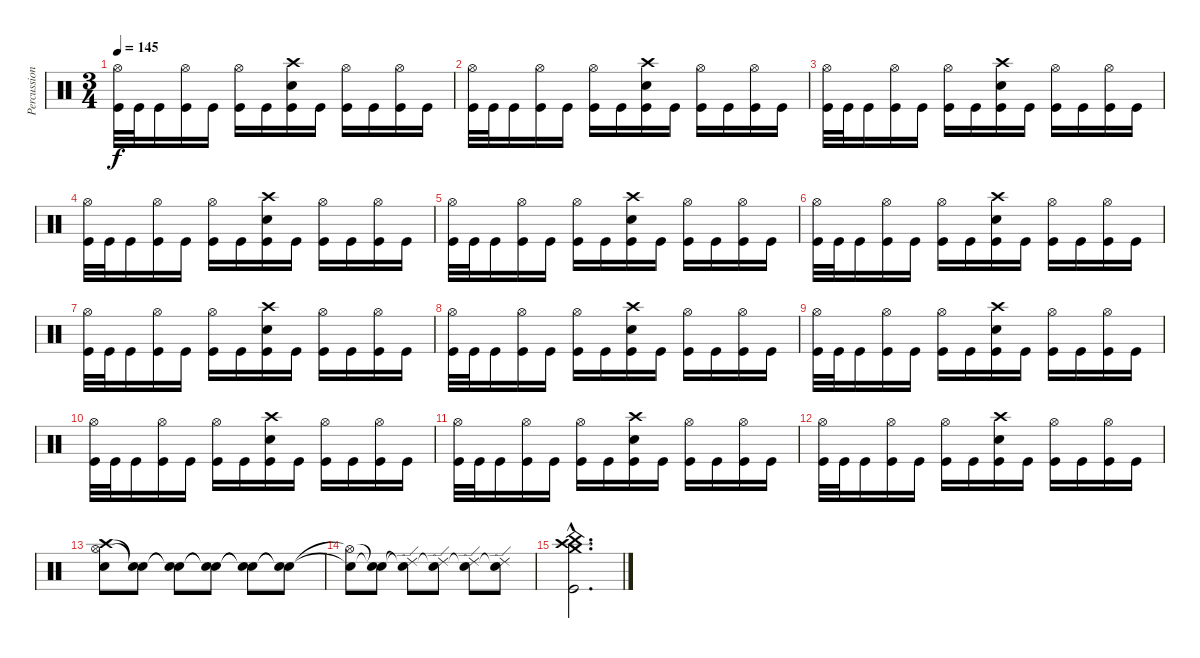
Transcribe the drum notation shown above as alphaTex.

\track ("Percussion" "Percussion") {instrument percussion}
\staff {score}
\articulation defaults
\ts (3 4)
\tempo 145
\clef neutral
\ks c
("Hi-Hat (open)" "Kick (hit)").32{dy f} "Kick (hit)".32 "Kick (hit)".16 ("Hi-Hat (open)" "Kick (hit)").16 "Kick (hit)".16 ("Hi-Hat (open)" "Kick (hit)").16 "Kick (hit)".16 ("Crash high (hit)" "Snare (hit) 2" "Kick (hit)").16 "Kick (hit)".16 ("Hi-Hat (open)" "Kick (hit)").16 "Kick (hit)".16 ("Hi-Hat (open)" "Kick (hit)").16 "Kick (hit)".16 |
("Hi-Hat (open)" "Kick (hit)").32 "Kick (hit)".32 "Kick (hit)".16 ("Hi-Hat (open)" "Kick (hit)").16 "Kick (hit)".16 ("Hi-Hat (open)" "Kick (hit)").16 "Kick (hit)".16 ("Crash high (hit)" "Snare (hit) 2" "Kick (hit)").16 "Kick (hit)".16 ("Hi-Hat (open)" "Kick (hit)").16 "Kick (hit)".16 ("Hi-Hat (open)" "Kick (hit)").16 "Kick (hit)".16 |
("Hi-Hat (open)" "Kick (hit)").32 "Kick (hit)".32 "Kick (hit)".16 ("Hi-Hat (open)" "Kick (hit)").16 "Kick (hit)".16 ("Hi-Hat (open)" "Kick (hit)").16 "Kick (hit)".16 ("Crash high (hit)" "Snare (hit) 2" "Kick (hit)").16 "Kick (hit)".16 ("Hi-Hat (open)" "Kick (hit)").16 "Kick (hit)".16 ("Hi-Hat (open)" "Kick (hit)").16 "Kick (hit)".16 |
("Hi-Hat (open)" "Kick (hit)").32 "Kick (hit)".32 "Kick (hit)".16 ("Hi-Hat (open)" "Kick (hit)").16 "Kick (hit)".16 ("Hi-Hat (open)" "Kick (hit)").16 "Kick (hit)".16 ("Crash high (hit)" "Snare (hit) 2" "Kick (hit)").16 "Kick (hit)".16 ("Hi-Hat (open)" "Kick (hit)").16 "Kick (hit)".16 ("Hi-Hat (open)" "Kick (hit)").16 "Kick (hit)".16 |
("Hi-Hat (open)" "Kick (hit)").32 "Kick (hit)".32 "Kick (hit)".16 ("Hi-Hat (open)" "Kick (hit)").16 "Kick (hit)".16 ("Hi-Hat (open)" "Kick (hit)").16 "Kick (hit)".16 ("Crash high (hit)" "Snare (hit) 2" "Kick (hit)").16 "Kick (hit)".16 ("Hi-Hat (open)" "Kick (hit)").16 "Kick (hit)".16 ("Hi-Hat (open)" "Kick (hit)").16 "Kick (hit)".16 |
("Hi-Hat (open)" "Kick (hit)").32 "Kick (hit)".32 "Kick (hit)".16 ("Hi-Hat (open)" "Kick (hit)").16 "Kick (hit)".16 ("Hi-Hat (open)" "Kick (hit)").16 "Kick (hit)".16 ("Crash high (hit)" "Snare (hit) 2" "Kick (hit)").16 "Kick (hit)".16 ("Hi-Hat (open)" "Kick (hit)").16 "Kick (hit)".16 ("Hi-Hat (open)" "Kick (hit)").16 "Kick (hit)".16 |
("Hi-Hat (open)" "Kick (hit)").32 "Kick (hit)".32 "Kick (hit)".16 ("Hi-Hat (open)" "Kick (hit)").16 "Kick (hit)".16 ("Hi-Hat (open)" "Kick (hit)").16 "Kick (hit)".16 ("Crash high (hit)" "Snare (hit) 2" "Kick (hit)").16 "Kick (hit)".16 ("Hi-Hat (open)" "Kick (hit)").16 "Kick (hit)".16 ("Hi-Hat (open)" "Kick (hit)").16 "Kick (hit)".16 |
("Hi-Hat (open)" "Kick (hit)").32 "Kick (hit)".32 "Kick (hit)".16 ("Hi-Hat (open)" "Kick (hit)").16 "Kick (hit)".16 ("Hi-Hat (open)" "Kick (hit)").16 "Kick (hit)".16 ("Crash high (hit)" "Snare (hit) 2" "Kick (hit)").16 "Kick (hit)".16 ("Hi-Hat (open)" "Kick (hit)").16 "Kick (hit)".16 ("Hi-Hat (open)" "Kick (hit)").16 "Kick (hit)".16 |
("Hi-Hat (open)" "Kick (hit)").32 "Kick (hit)".32 "Kick (hit)".16 ("Hi-Hat (open)" "Kick (hit)").16 "Kick (hit)".16 ("Hi-Hat (open)" "Kick (hit)").16 "Kick (hit)".16 ("Crash high (hit)" "Snare (hit) 2" "Kick (hit)").16 "Kick (hit)".16 ("Hi-Hat (open)" "Kick (hit)").16 "Kick (hit)".16 ("Hi-Hat (open)" "Kick (hit)").16 "Kick (hit)".16 |
("Hi-Hat (open)" "Kick (hit)").32 "Kick (hit)".32 "Kick (hit)".16 ("Hi-Hat (open)" "Kick (hit)").16 "Kick (hit)".16 ("Hi-Hat (open)" "Kick (hit)").16 "Kick (hit)".16 ("Crash high (hit)" "Snare (hit) 2" "Kick (hit)").16 "Kick (hit)".16 ("Hi-Hat (open)" "Kick (hit)").16 "Kick (hit)".16 ("Hi-Hat (open)" "Kick (hit)").16 "Kick (hit)".16 |
("Hi-Hat (open)" "Kick (hit)").32 "Kick (hit)".32 "Kick (hit)".16 ("Hi-Hat (open)" "Kick (hit)").16 "Kick (hit)".16 ("Hi-Hat (open)" "Kick (hit)").16 "Kick (hit)".16 ("Crash high (hit)" "Snare (hit) 2" "Kick (hit)").16 "Kick (hit)".16 ("Hi-Hat (open)" "Kick (hit)").16 "Kick (hit)".16 ("Hi-Hat (open)" "Kick (hit)").16 "Kick (hit)".16 |
("Hi-Hat (open)" "Kick (hit)").32 "Kick (hit)".32 "Kick (hit)".16 ("Hi-Hat (open)" "Kick (hit)").16 "Kick (hit)".16 ("Hi-Hat (open)" "Kick (hit)").16 "Kick (hit)".16 ("Crash high (hit)" "Snare (hit) 2" "Kick (hit)").16 "Kick (hit)".16 ("Hi-Hat (open)" "Kick (hit)").16 "Kick (hit)".16 ("Hi-Hat (open)" "Kick (hit)").16 "Kick (hit)".16 |
("Crash high (hit)" "Hi-Hat (open)" "Snare (hit) 2").8 ("Snare (hit)"{t} "Snare (hit)"{t}).8 ("Snare (hit)"{t} "Snare (hit)"{t}).8 ("Snare (hit)"{t} "Snare (hit)"{t}).8 ("Snare (hit)"{t} "Snare (hit)"{t}).8 ("Snare (hit)"{t} "Snare (hit)"{t}).8 |
("Hi-Hat (open)"{t} "Snare (hit)"{t}).8 ("Snare (hit)"{t} "Snare (hit)"{t}).8 ("Ride (edge) 2"{t} "Snare (hit)"{t}).8 ("Ride (edge) 2" "Snare (hit)"{t}).8 ("Ride (edge) 2" "Snare (hit)"{t}).8 ("Ride (edge) 2" "Snare (hit)"{t}).8 |
("Crash medium (hit)"{hac} "China (hit)"{hac} "Crash high (hit)"{hac} "Kick (hit)"{hac}).2{d}
